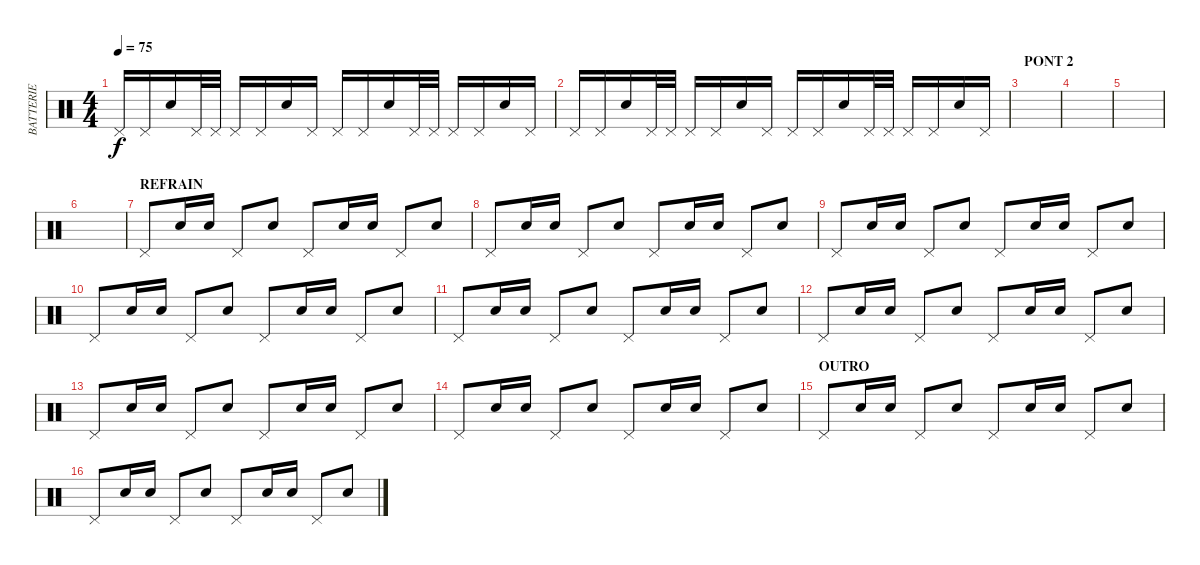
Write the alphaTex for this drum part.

\track ("BATTERIE" "BATTERIE") {instrument percussion}
\staff {score}
\articulation defaults
\ts (4 4)
\tempo 75
\clef neutral
\ks c "Pedal Hi-Hat (hit)".16{dy f} "Pedal Hi-Hat (hit)".16 "Electric Snare (hit)".16 "Pedal Hi-Hat (hit)".32 "Pedal Hi-Hat (hit)".32 "Pedal Hi-Hat (hit)".16 "Pedal Hi-Hat (hit)".16 "Electric Snare (hit)".16 "Pedal Hi-Hat (hit)".16 "Pedal Hi-Hat (hit)".16 "Pedal Hi-Hat (hit)".16 "Electric Snare (hit)".16 "Pedal Hi-Hat (hit)".32 "Pedal Hi-Hat (hit)".32 "Pedal Hi-Hat (hit)".16 "Pedal Hi-Hat (hit)".16 "Electric Snare (hit)".16 "Pedal Hi-Hat (hit)".16
|
"Pedal Hi-Hat (hit)".16 "Pedal Hi-Hat (hit)".16 "Electric Snare (hit)".16 "Pedal Hi-Hat (hit)".32 "Pedal Hi-Hat (hit)".32 "Pedal Hi-Hat (hit)".16 "Pedal Hi-Hat (hit)".16 "Electric Snare (hit)".16 "Pedal Hi-Hat (hit)".16 "Pedal Hi-Hat (hit)".16 "Pedal Hi-Hat (hit)".16 "Electric Snare (hit)".16 "Pedal Hi-Hat (hit)".32 "Pedal Hi-Hat (hit)".32 "Pedal Hi-Hat (hit)".16 "Pedal Hi-Hat (hit)".16 "Electric Snare (hit)".16 "Pedal Hi-Hat (hit)".16 |
\section ("" "PONT 2")
|
|
|
|
\section ("" "REFRAIN")
"Pedal Hi-Hat (hit)".8 "Electric Snare (hit)".16 "Electric Snare (hit)".16 "Pedal Hi-Hat (hit)".8 "Electric Snare (hit)".8 "Pedal Hi-Hat (hit)".8 "Electric Snare (hit)".16 "Electric Snare (hit)".16 "Pedal Hi-Hat (hit)".8 "Electric Snare (hit)".8 |
"Pedal Hi-Hat (hit)".8 "Electric Snare (hit)".16 "Electric Snare (hit)".16 "Pedal Hi-Hat (hit)".8 "Electric Snare (hit)".8 "Pedal Hi-Hat (hit)".8 "Electric Snare (hit)".16 "Electric Snare (hit)".16 "Pedal Hi-Hat (hit)".8 "Electric Snare (hit)".8 |
"Pedal Hi-Hat (hit)".8 "Electric Snare (hit)".16 "Electric Snare (hit)".16 "Pedal Hi-Hat (hit)".8 "Electric Snare (hit)".8 "Pedal Hi-Hat (hit)".8 "Electric Snare (hit)".16 "Electric Snare (hit)".16 "Pedal Hi-Hat (hit)".8 "Electric Snare (hit)".8 |
"Pedal Hi-Hat (hit)".8 "Electric Snare (hit)".16 "Electric Snare (hit)".16 "Pedal Hi-Hat (hit)".8 "Electric Snare (hit)".8 "Pedal Hi-Hat (hit)".8 "Electric Snare (hit)".16 "Electric Snare (hit)".16 "Pedal Hi-Hat (hit)".8 "Electric Snare (hit)".8 |
"Pedal Hi-Hat (hit)".8 "Electric Snare (hit)".16 "Electric Snare (hit)".16 "Pedal Hi-Hat (hit)".8 "Electric Snare (hit)".8 "Pedal Hi-Hat (hit)".8 "Electric Snare (hit)".16 "Electric Snare (hit)".16 "Pedal Hi-Hat (hit)".8 "Electric Snare (hit)".8 |
"Pedal Hi-Hat (hit)".8 "Electric Snare (hit)".16 "Electric Snare (hit)".16 "Pedal Hi-Hat (hit)".8 "Electric Snare (hit)".8 "Pedal Hi-Hat (hit)".8 "Electric Snare (hit)".16 "Electric Snare (hit)".16 "Pedal Hi-Hat (hit)".8 "Electric Snare (hit)".8 |
"Pedal Hi-Hat (hit)".8 "Electric Snare (hit)".16 "Electric Snare (hit)".16 "Pedal Hi-Hat (hit)".8 "Electric Snare (hit)".8 "Pedal Hi-Hat (hit)".8 "Electric Snare (hit)".16 "Electric Snare (hit)".16 "Pedal Hi-Hat (hit)".8 "Electric Snare (hit)".8 |
"Pedal Hi-Hat (hit)".8 "Electric Snare (hit)".16 "Electric Snare (hit)".16 "Pedal Hi-Hat (hit)".8 "Electric Snare (hit)".8 "Pedal Hi-Hat (hit)".8 "Electric Snare (hit)".16 "Electric Snare (hit)".16 "Pedal Hi-Hat (hit)".8 "Electric Snare (hit)".8 |
\section ("" "OUTRO")
"Pedal Hi-Hat (hit)".8 "Electric Snare (hit)".16 "Electric Snare (hit)".16 "Pedal Hi-Hat (hit)".8 "Electric Snare (hit)".8 "Pedal Hi-Hat (hit)".8 "Electric Snare (hit)".16 "Electric Snare (hit)".16 "Pedal Hi-Hat (hit)".8 "Electric Snare (hit)".8 |
"Pedal Hi-Hat (hit)".8 "Electric Snare (hit)".16 "Electric Snare (hit)".16 "Pedal Hi-Hat (hit)".8 "Electric Snare (hit)".8 "Pedal Hi-Hat (hit)".8 "Electric Snare (hit)".16 "Electric Snare (hit)".16 "Pedal Hi-Hat (hit)".8 "Electric Snare (hit)".8
